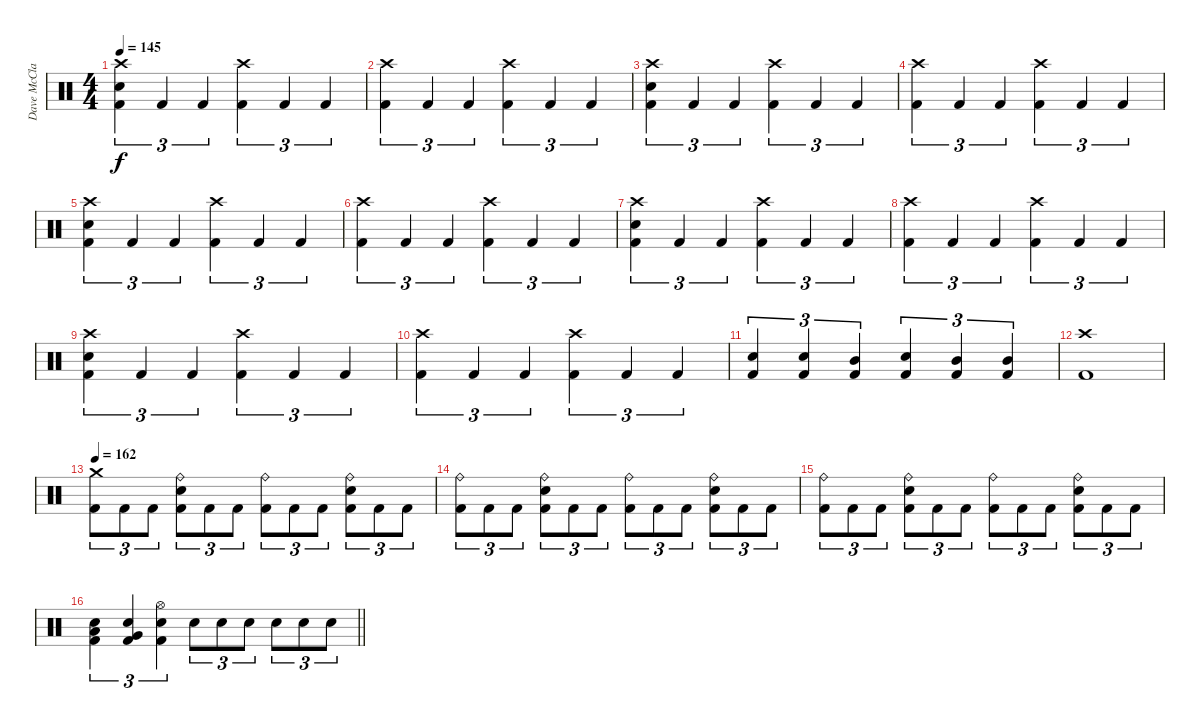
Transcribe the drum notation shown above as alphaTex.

\track ("Dave McClain" "Dave McCla") {instrument percussion}
\staff {score}
\articulation defaults
\ts (4 4)
\tempo 145
\clef neutral
\ks c
("Crash high (hit)" "Snare (hit) 2" "Kick (hit) 2").4{tu (3 2) dy f} "Kick (hit) 2".4{tu (3 2)} "Kick (hit) 2".4{tu (3 2)} ("Crash high (hit)" "Kick (hit) 2").4{tu (3 2)} "Kick (hit) 2".4{tu (3 2)} "Kick (hit) 2".4{tu (3 2)} |
("Crash high (hit)" "Kick (hit) 2").4{tu (3 2)} "Kick (hit) 2".4{tu (3 2)} "Kick (hit) 2".4{tu (3 2)} ("Crash high (hit)" "Kick (hit) 2").4{tu (3 2)} "Kick (hit) 2".4{tu (3 2)} "Kick (hit) 2".4{tu (3 2)} |
("Crash high (hit)" "Snare (hit) 2" "Kick (hit) 2").4{tu (3 2)} "Kick (hit) 2".4{tu (3 2)} "Kick (hit) 2".4{tu (3 2)} ("Crash high (hit)" "Kick (hit) 2").4{tu (3 2)} "Kick (hit) 2".4{tu (3 2)} "Kick (hit) 2".4{tu (3 2)} |
("Crash high (hit)" "Kick (hit) 2").4{tu (3 2)} "Kick (hit) 2".4{tu (3 2)} "Kick (hit) 2".4{tu (3 2)} ("Crash high (hit)" "Kick (hit) 2").4{tu (3 2)} "Kick (hit) 2".4{tu (3 2)} "Kick (hit) 2".4{tu (3 2)} |
("Crash high (hit)" "Snare (hit) 2" "Kick (hit) 2").4{tu (3 2)} "Kick (hit) 2".4{tu (3 2)} "Kick (hit) 2".4{tu (3 2)} ("Crash high (hit)" "Kick (hit) 2").4{tu (3 2)} "Kick (hit) 2".4{tu (3 2)} "Kick (hit) 2".4{tu (3 2)} |
("Crash high (hit)" "Kick (hit) 2").4{tu (3 2)} "Kick (hit) 2".4{tu (3 2)} "Kick (hit) 2".4{tu (3 2)} ("Crash high (hit)" "Kick (hit) 2").4{tu (3 2)} "Kick (hit) 2".4{tu (3 2)} "Kick (hit) 2".4{tu (3 2)} |
("Crash high (hit)" "Snare (hit) 2" "Kick (hit) 2").4{tu (3 2)} "Kick (hit) 2".4{tu (3 2)} "Kick (hit) 2".4{tu (3 2)} ("Crash high (hit)" "Kick (hit) 2").4{tu (3 2)} "Kick (hit) 2".4{tu (3 2)} "Kick (hit) 2".4{tu (3 2)} |
("Crash high (hit)" "Kick (hit) 2").4{tu (3 2)} "Kick (hit) 2".4{tu (3 2)} "Kick (hit) 2".4{tu (3 2)} ("Crash high (hit)" "Kick (hit) 2").4{tu (3 2)} "Kick (hit) 2".4{tu (3 2)} "Kick (hit) 2".4{tu (3 2)} |
("Crash high (hit)" "Snare (hit) 2" "Kick (hit) 2").4{tu (3 2)} "Kick (hit) 2".4{tu (3 2)} "Kick (hit) 2".4{tu (3 2)} ("Crash high (hit)" "Kick (hit) 2").4{tu (3 2)} "Kick (hit) 2".4{tu (3 2)} "Kick (hit) 2".4{tu (3 2)} |
("Crash high (hit)" "Kick (hit) 2").4{tu (3 2)} "Kick (hit) 2".4{tu (3 2)} "Kick (hit) 2".4{tu (3 2)} ("Crash high (hit)" "Kick (hit) 2").4{tu (3 2)} "Kick (hit) 2".4{tu (3 2)} "Kick (hit) 2".4{tu (3 2)} |
("Snare (hit) 2" "Kick (hit) 2").4{tu (3 2)} ("Snare (hit) 2" "Kick (hit) 2").4{tu (3 2)} ("Mid Tom (hit)" "Kick (hit) 2").4{tu (3 2)} ("Snare (hit) 2" "Kick (hit) 2").4{tu (3 2)} ("Mid Tom (hit)" "Kick (hit) 2").4{tu (3 2)} ("Mid Tom (hit)" "Kick (hit) 2").4{tu (3 2)} |
("Crash high (hit)" "Kick (hit) 2").1 |
\tempo 162
("Crash medium (hit)" "Kick (hit) 2").8{tu (3 2)} "Kick (hit) 2".8{tu (3 2)} "Kick (hit) 2".8{tu (3 2)} ("Ride (bell)" "Snare (hit) 2" "Kick (hit) 2").8{tu (3 2)} "Kick (hit) 2".8{tu (3 2)} "Kick (hit) 2".8{tu (3 2)} ("Ride (bell)" "Kick (hit) 2").8{tu (3 2)} "Kick (hit) 2".8{tu (3 2)} "Kick (hit) 2".8{tu (3 2)} ("Ride (bell)" "Snare (hit) 2" "Kick (hit) 2").8{tu (3 2)} "Kick (hit) 2".8{tu (3 2)} "Kick (hit) 2".8{tu (3 2)} |
("Ride (bell)" "Kick (hit) 2").8{tu (3 2)} "Kick (hit) 2".8{tu (3 2)} "Kick (hit) 2".8{tu (3 2)} ("Ride (bell)" "Snare (hit) 2" "Kick (hit) 2").8{tu (3 2)} "Kick (hit) 2".8{tu (3 2)} "Kick (hit) 2".8{tu (3 2)} ("Ride (bell)" "Kick (hit) 2").8{tu (3 2)} "Kick (hit) 2".8{tu (3 2)} "Kick (hit) 2".8{tu (3 2)} ("Ride (bell)" "Snare (hit) 2" "Kick (hit) 2").8{tu (3 2)} "Kick (hit) 2".8{tu (3 2)} "Kick (hit) 2".8{tu (3 2)} |
("Ride (bell)" "Kick (hit) 2").8{tu (3 2)} "Kick (hit) 2".8{tu (3 2)} "Kick (hit) 2".8{tu (3 2)} ("Ride (bell)" "Snare (hit) 2" "Kick (hit) 2").8{tu (3 2)} "Kick (hit) 2".8{tu (3 2)} "Kick (hit) 2".8{tu (3 2)} ("Ride (bell)" "Kick (hit) 2").8{tu (3 2)} "Kick (hit) 2".8{tu (3 2)} "Kick (hit) 2".8{tu (3 2)} ("Ride (bell)" "Snare (hit) 2" "Kick (hit) 2").8{tu (3 2)} "Kick (hit) 2".8{tu (3 2)} "Kick (hit) 2".8{tu (3 2)} |
\barLineRight lightlight
("Low Tom (hit)" "Snare (hit) 2" "Kick (hit) 2").4{tu (3 2)} ("Very Low Tom (hit)" "Snare (hit) 2" "Kick (hit) 2").4{tu (3 2)} ("Hi-Hat (open)" "Snare (hit) 2" "Kick (hit) 2").4{tu (3 2)} "Snare (hit) 2".8{tu (3 2)} "Snare (hit) 2".8{tu (3 2)} "Snare (hit) 2".8{tu (3 2)} "Snare (hit) 2".8{tu (3 2)} "Snare (hit) 2".8{tu (3 2)} "Snare (hit) 2".8{tu (3 2)}
